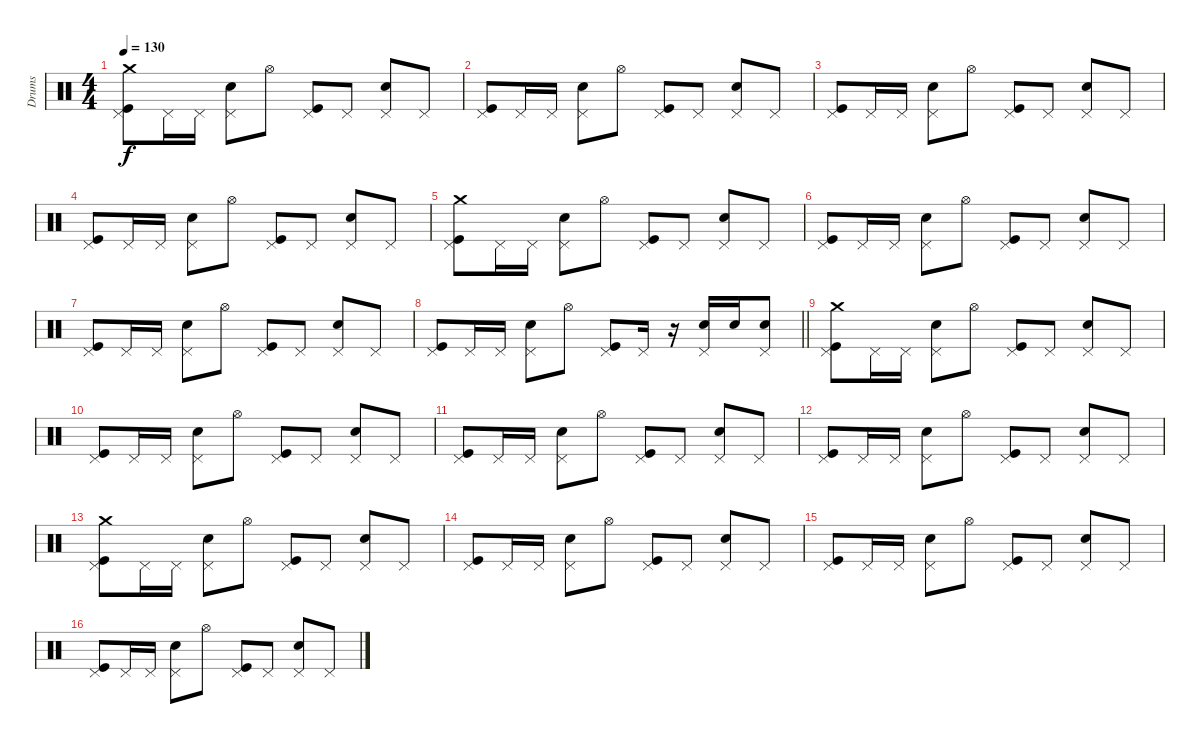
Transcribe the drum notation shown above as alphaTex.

\track ("Drums" "Drums") {instrument percussion}
\staff {score}
\articulation defaults
\ts (4 4)
\tempo 130
\clef neutral
\ks c
("Pedal Hi-Hat (hit)" "Kick (hit)" "Crash medium (hit)").8{dy f} "Pedal Hi-Hat (hit)".16 "Pedal Hi-Hat (hit)".16 ("Pedal Hi-Hat (hit)" "Snare (hit) 2").8 "Hi-Hat (open)".8 ("Pedal Hi-Hat (hit)" "Kick (hit)").8 "Pedal Hi-Hat (hit)".8 ("Pedal Hi-Hat (hit)" "Snare (hit) 2").8 "Pedal Hi-Hat (hit)".8 |
("Pedal Hi-Hat (hit)" "Kick (hit)").8 "Pedal Hi-Hat (hit)".16 "Pedal Hi-Hat (hit)".16 ("Pedal Hi-Hat (hit)" "Snare (hit) 2").8 "Hi-Hat (open)".8 ("Pedal Hi-Hat (hit)" "Kick (hit)").8 "Pedal Hi-Hat (hit)".8 ("Pedal Hi-Hat (hit)" "Snare (hit) 2").8 "Pedal Hi-Hat (hit)".8 |
("Pedal Hi-Hat (hit)" "Kick (hit)").8 "Pedal Hi-Hat (hit)".16 "Pedal Hi-Hat (hit)".16 ("Pedal Hi-Hat (hit)" "Snare (hit) 2").8 "Hi-Hat (open)".8 ("Pedal Hi-Hat (hit)" "Kick (hit)").8 "Pedal Hi-Hat (hit)".8 ("Pedal Hi-Hat (hit)" "Snare (hit) 2").8 "Pedal Hi-Hat (hit)".8 |
("Pedal Hi-Hat (hit)" "Kick (hit)").8 "Pedal Hi-Hat (hit)".16 "Pedal Hi-Hat (hit)".16 ("Pedal Hi-Hat (hit)" "Snare (hit) 2").8 "Hi-Hat (open)".8 ("Pedal Hi-Hat (hit)" "Kick (hit)").8 "Pedal Hi-Hat (hit)".8 ("Pedal Hi-Hat (hit)" "Snare (hit) 2").8 "Pedal Hi-Hat (hit)".8 |
("Pedal Hi-Hat (hit)" "Kick (hit)" "Crash medium (hit)").8 "Pedal Hi-Hat (hit)".16 "Pedal Hi-Hat (hit)".16 ("Pedal Hi-Hat (hit)" "Snare (hit) 2").8 "Hi-Hat (open)".8 ("Pedal Hi-Hat (hit)" "Kick (hit)").8 "Pedal Hi-Hat (hit)".8 ("Pedal Hi-Hat (hit)" "Snare (hit) 2").8 "Pedal Hi-Hat (hit)".8 |
("Pedal Hi-Hat (hit)" "Kick (hit)").8 "Pedal Hi-Hat (hit)".16 "Pedal Hi-Hat (hit)".16 ("Pedal Hi-Hat (hit)" "Snare (hit) 2").8 "Hi-Hat (open)".8 ("Pedal Hi-Hat (hit)" "Kick (hit)").8 "Pedal Hi-Hat (hit)".8 ("Pedal Hi-Hat (hit)" "Snare (hit) 2").8 "Pedal Hi-Hat (hit)".8 |
("Pedal Hi-Hat (hit)" "Kick (hit)").8 "Pedal Hi-Hat (hit)".16 "Pedal Hi-Hat (hit)".16 ("Pedal Hi-Hat (hit)" "Snare (hit) 2").8 "Hi-Hat (open)".8 ("Pedal Hi-Hat (hit)" "Kick (hit)").8 "Pedal Hi-Hat (hit)".8 ("Pedal Hi-Hat (hit)" "Snare (hit) 2").8 "Pedal Hi-Hat (hit)".8 |
\barLineRight lightlight
("Pedal Hi-Hat (hit)" "Kick (hit)").8 "Pedal Hi-Hat (hit)".16 "Pedal Hi-Hat (hit)".16 ("Pedal Hi-Hat (hit)" "Snare (hit) 2").8 "Hi-Hat (open)".8 ("Pedal Hi-Hat (hit)" "Kick (hit)").8 "Pedal Hi-Hat (hit)".16 r.16 ("Pedal Hi-Hat (hit)" "Snare (hit) 2").16 "Snare (hit) 2".16 ("Pedal Hi-Hat (hit)" "Snare (hit) 2").8 |
("Pedal Hi-Hat (hit)" "Kick (hit)" "Crash medium (hit)").8 "Pedal Hi-Hat (hit)".16 "Pedal Hi-Hat (hit)".16 ("Pedal Hi-Hat (hit)" "Snare (hit) 2").8 "Hi-Hat (open)".8 ("Pedal Hi-Hat (hit)" "Kick (hit)").8 "Pedal Hi-Hat (hit)".8 ("Pedal Hi-Hat (hit)" "Snare (hit) 2").8 "Pedal Hi-Hat (hit)".8 |
("Pedal Hi-Hat (hit)" "Kick (hit)").8 "Pedal Hi-Hat (hit)".16 "Pedal Hi-Hat (hit)".16 ("Pedal Hi-Hat (hit)" "Snare (hit) 2").8 "Hi-Hat (open)".8 ("Pedal Hi-Hat (hit)" "Kick (hit)").8 "Pedal Hi-Hat (hit)".8 ("Pedal Hi-Hat (hit)" "Snare (hit) 2").8 "Pedal Hi-Hat (hit)".8 |
("Pedal Hi-Hat (hit)" "Kick (hit)").8 "Pedal Hi-Hat (hit)".16 "Pedal Hi-Hat (hit)".16 ("Pedal Hi-Hat (hit)" "Snare (hit) 2").8 "Hi-Hat (open)".8 ("Pedal Hi-Hat (hit)" "Kick (hit)").8 "Pedal Hi-Hat (hit)".8 ("Pedal Hi-Hat (hit)" "Snare (hit) 2").8 "Pedal Hi-Hat (hit)".8 |
("Pedal Hi-Hat (hit)" "Kick (hit)").8 "Pedal Hi-Hat (hit)".16 "Pedal Hi-Hat (hit)".16 ("Pedal Hi-Hat (hit)" "Snare (hit) 2").8 "Hi-Hat (open)".8 ("Pedal Hi-Hat (hit)" "Kick (hit)").8 "Pedal Hi-Hat (hit)".8 ("Pedal Hi-Hat (hit)" "Snare (hit) 2").8 "Pedal Hi-Hat (hit)".8 |
("Pedal Hi-Hat (hit)" "Kick (hit)" "Crash medium (hit)").8 "Pedal Hi-Hat (hit)".16 "Pedal Hi-Hat (hit)".16 ("Pedal Hi-Hat (hit)" "Snare (hit) 2").8 "Hi-Hat (open)".8 ("Pedal Hi-Hat (hit)" "Kick (hit)").8 "Pedal Hi-Hat (hit)".8 ("Pedal Hi-Hat (hit)" "Snare (hit) 2").8 "Pedal Hi-Hat (hit)".8 |
("Pedal Hi-Hat (hit)" "Kick (hit)").8 "Pedal Hi-Hat (hit)".16 "Pedal Hi-Hat (hit)".16 ("Pedal Hi-Hat (hit)" "Snare (hit) 2").8 "Hi-Hat (open)".8 ("Pedal Hi-Hat (hit)" "Kick (hit)").8 "Pedal Hi-Hat (hit)".8 ("Pedal Hi-Hat (hit)" "Snare (hit) 2").8 "Pedal Hi-Hat (hit)".8 |
("Pedal Hi-Hat (hit)" "Kick (hit)").8 "Pedal Hi-Hat (hit)".16 "Pedal Hi-Hat (hit)".16 ("Pedal Hi-Hat (hit)" "Snare (hit) 2").8 "Hi-Hat (open)".8 ("Pedal Hi-Hat (hit)" "Kick (hit)").8 "Pedal Hi-Hat (hit)".8 ("Pedal Hi-Hat (hit)" "Snare (hit) 2").8 "Pedal Hi-Hat (hit)".8 |
("Pedal Hi-Hat (hit)" "Kick (hit)").8 "Pedal Hi-Hat (hit)".16 "Pedal Hi-Hat (hit)".16 ("Pedal Hi-Hat (hit)" "Snare (hit) 2").8 "Hi-Hat (open)".8 ("Pedal Hi-Hat (hit)" "Kick (hit)").8 "Pedal Hi-Hat (hit)".8 ("Pedal Hi-Hat (hit)" "Snare (hit) 2").8 "Pedal Hi-Hat (hit)".8
